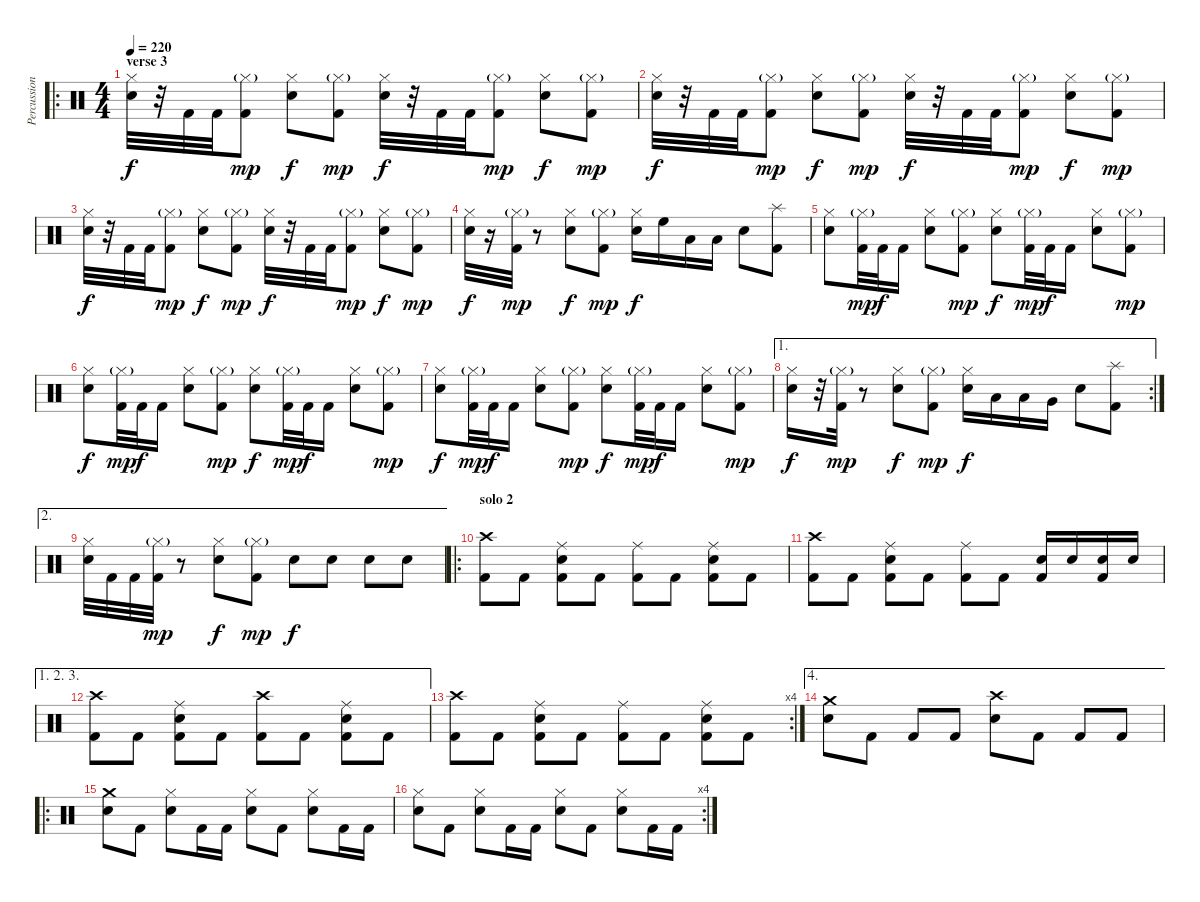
\track ("Percussion" "Percussion") {instrument percussion}
\staff {score}
\articulation defaults
\ro
\ts (4 4)
\section ("" "verse 3")
\tempo 220
\clef neutral
\ks c
("Hi-Hat (closed)" "Electric Snare (hit)").32{dy f} r.32 "Kick (hit) 2".32 "Kick (hit) 2".32 ("Hi-Hat (closed)"{g} "Kick (hit) 2").8{dy mp} ("Hi-Hat (closed)" "Electric Snare (hit)").8{dy f} ("Hi-Hat (closed)"{g} "Kick (hit) 2").8{dy mp} ("Hi-Hat (closed)" "Electric Snare (hit)").32{dy f} r.32 "Kick (hit) 2".32 "Kick (hit) 2".32 ("Hi-Hat (closed)"{g} "Kick (hit) 2").8{dy mp} ("Hi-Hat (closed)" "Electric Snare (hit)").8{dy f} ("Hi-Hat (closed)"{g} "Kick (hit) 2").8{dy mp} |
("Hi-Hat (closed)" "Electric Snare (hit)").32{dy f} r.32 "Kick (hit) 2".32 "Kick (hit) 2".32 ("Hi-Hat (closed)"{g} "Kick (hit) 2").8{dy mp} ("Hi-Hat (closed)" "Electric Snare (hit)").8{dy f} ("Hi-Hat (closed)"{g} "Kick (hit) 2").8{dy mp} ("Hi-Hat (closed)" "Electric Snare (hit)").32{dy f} r.32 "Kick (hit) 2".32 "Kick (hit) 2".32 ("Hi-Hat (closed)"{g} "Kick (hit) 2").8{dy mp} ("Hi-Hat (closed)" "Electric Snare (hit)").8{dy f} ("Hi-Hat (closed)"{g} "Kick (hit) 2").8{dy mp} |
("Hi-Hat (closed)" "Electric Snare (hit)").32{dy f} r.32 "Kick (hit) 2".32 "Kick (hit) 2".32 ("Hi-Hat (closed)"{g} "Kick (hit) 2").8{dy mp} ("Hi-Hat (closed)" "Electric Snare (hit)").8{dy f} ("Hi-Hat (closed)"{g} "Kick (hit) 2").8{dy mp} ("Hi-Hat (closed)" "Electric Snare (hit)").32{dy f} r.32 "Kick (hit) 2".32 "Kick (hit) 2".32 ("Hi-Hat (closed)"{g} "Kick (hit) 2").8{dy mp} ("Hi-Hat (closed)" "Electric Snare (hit)").8{dy f} ("Hi-Hat (closed)"{g} "Kick (hit) 2").8{dy mp} |
("Hi-Hat (closed)" "Electric Snare (hit)").32{dy f} r.16 ("Hi-Hat (closed)"{g} "Kick (hit) 2").32{dy mp} r.8 ("Hi-Hat (closed)" "Electric Snare (hit)").8{dy f} ("Hi-Hat (closed)"{g} "Kick (hit) 2").8{dy mp} ("Hi-Hat (closed)" "Electric Snare (hit)").16{dy f} "High Floor Tom (hit)".16 "Low Tom (hit)".16 "Low Tom (hit)".16 "Electric Snare (hit)".8 ("Splash (hit)" "Kick (hit) 2").8 |
("Hi-Hat (closed)" "Electric Snare (hit)").8 ("Hi-Hat (closed)"{g} "Kick (hit) 2").32{dy mp} "Kick (hit) 2".32{dy f} "Kick (hit) 2".16 ("Hi-Hat (closed)" "Electric Snare (hit)").8 ("Hi-Hat (closed)"{g} "Kick (hit) 2").8{dy mp} ("Hi-Hat (closed)" "Electric Snare (hit)").8{dy f} ("Hi-Hat (closed)"{g} "Kick (hit) 2").32{dy mp} "Kick (hit) 2".32{dy f} "Kick (hit) 2".16 ("Hi-Hat (closed)" "Electric Snare (hit)").8 ("Hi-Hat (closed)"{g} "Kick (hit) 2").8{dy mp} |
("Hi-Hat (closed)" "Electric Snare (hit)").8{dy f} ("Hi-Hat (closed)"{g} "Kick (hit) 2").32{dy mp} "Kick (hit) 2".32{dy f} "Kick (hit) 2".16 ("Hi-Hat (closed)" "Electric Snare (hit)").8 ("Hi-Hat (closed)"{g} "Kick (hit) 2").8{dy mp} ("Hi-Hat (closed)" "Electric Snare (hit)").8{dy f} ("Hi-Hat (closed)"{g} "Kick (hit) 2").32{dy mp} "Kick (hit) 2".32{dy f} "Kick (hit) 2".16 ("Hi-Hat (closed)" "Electric Snare (hit)").8 ("Hi-Hat (closed)"{g} "Kick (hit) 2").8{dy mp} |
("Hi-Hat (closed)" "Electric Snare (hit)").8{dy f} ("Hi-Hat (closed)"{g} "Kick (hit) 2").32{dy mp} "Kick (hit) 2".32{dy f} "Kick (hit) 2".16 ("Hi-Hat (closed)" "Electric Snare (hit)").8 ("Hi-Hat (closed)"{g} "Kick (hit) 2").8{dy mp} ("Hi-Hat (closed)" "Electric Snare (hit)").8{dy f} ("Hi-Hat (closed)"{g} "Kick (hit) 2").32{dy mp} "Kick (hit) 2".32{dy f} "Kick (hit) 2".16 ("Hi-Hat (closed)" "Electric Snare (hit)").8 ("Hi-Hat (closed)"{g} "Kick (hit) 2").8{dy mp} |
\ae 1
\rc 2
("Hi-Hat (closed)" "Electric Snare (hit)").16{dy f} r.32 ("Hi-Hat (closed)"{g} "Kick (hit) 2").32{dy mp} r.8 ("Hi-Hat (closed)" "Electric Snare (hit)").8{dy f} ("Hi-Hat (closed)"{g} "Kick (hit) 2").8{dy mp} ("Hi-Hat (closed)" "Electric Snare (hit)").16{dy f} "Low Tom (hit)".16 "Low Tom (hit)".16 "Very Low Tom (hit)".16 "Electric Snare (hit)".8 ("Splash (hit)" "Kick (hit) 2").8 |
\ae 2
("Hi-Hat (closed)" "Electric Snare (hit)").32 "Kick (hit) 2".32 "Kick (hit) 2".32 ("Hi-Hat (closed)"{g} "Kick (hit) 2").32{dy mp} r.8 ("Hi-Hat (closed)" "Electric Snare (hit)").8{dy f} ("Hi-Hat (closed)"{g} "Kick (hit) 2").8{dy mp} "Electric Snare (hit)".8{dy f} "Electric Snare (hit)".8 "Electric Snare (hit)".8 "Electric Snare (hit)".8 |
\ro
\section ("" "solo 2")
("Crash high (hit)" "Kick (hit) 2").8 "Kick (hit) 2".8 ("Ride (middle)" "Electric Snare (hit)" "Kick (hit) 2").8 "Kick (hit) 2".8 ("Ride (middle)" "Kick (hit) 2").8 "Kick (hit) 2".8 ("Ride (middle)" "Electric Snare (hit)" "Kick (hit) 2").8 "Kick (hit) 2".8 |
("Crash high (hit)" "Kick (hit) 2").8 "Kick (hit) 2".8 ("Ride (middle)" "Electric Snare (hit)" "Kick (hit) 2").8 "Kick (hit) 2".8 ("Ride (middle)" "Kick (hit) 2").8 "Kick (hit) 2".8 ("Electric Snare (hit)" "Kick (hit) 2").16 "Electric Snare (hit)".16 ("Electric Snare (hit)" "Kick (hit) 2").16 "Electric Snare (hit)".16 |
\ae (1 2 3)
("Crash high (hit)" "Kick (hit) 2").8 "Kick (hit) 2".8 ("Ride (middle)" "Electric Snare (hit)" "Kick (hit) 2").8 "Kick (hit) 2".8 ("Crash high (hit)" "Kick (hit) 2").8 "Kick (hit) 2".8 ("Ride (middle)" "Electric Snare (hit)" "Kick (hit) 2").8 "Kick (hit) 2".8 |
\rc 4
("Crash high (hit)" "Kick (hit) 2").8 "Kick (hit) 2".8 ("Ride (middle)" "Electric Snare (hit)" "Kick (hit) 2").8 "Kick (hit) 2".8 ("Ride (middle)" "Kick (hit) 2").8 "Kick (hit) 2".8 ("Ride (middle)" "Electric Snare (hit)" "Kick (hit) 2").8 "Kick (hit) 2".8 |
\ae 4
("Crash medium (hit)" "Electric Snare (hit)").8 "Kick (hit) 2".8 "Kick (hit) 2".8 "Kick (hit) 2".8 ("Crash high (hit)" "Electric Snare (hit)").8 "Kick (hit) 2".8 "Kick (hit) 2".8 "Kick (hit) 2".8 |
\ro
("Crash medium (hit)" "Electric Snare (hit)").8 "Kick (hit) 2".8 ("Hi-Hat (closed)" "Electric Snare (hit)").8 "Kick (hit) 2".16 "Kick (hit) 2".16 ("Hi-Hat (closed)" "Electric Snare (hit)").8 "Kick (hit) 2".8 ("Hi-Hat (closed)" "Electric Snare (hit)").8 "Kick (hit) 2".16 "Kick (hit) 2".16 |
\rc 4
("Hi-Hat (closed)" "Electric Snare (hit)").8 "Kick (hit) 2".8 ("Hi-Hat (closed)" "Electric Snare (hit)").8 "Kick (hit) 2".16 "Kick (hit) 2".16 ("Hi-Hat (closed)" "Electric Snare (hit)").8 "Kick (hit) 2".8 ("Hi-Hat (closed)" "Electric Snare (hit)").8 "Kick (hit) 2".16 "Kick (hit) 2".16
